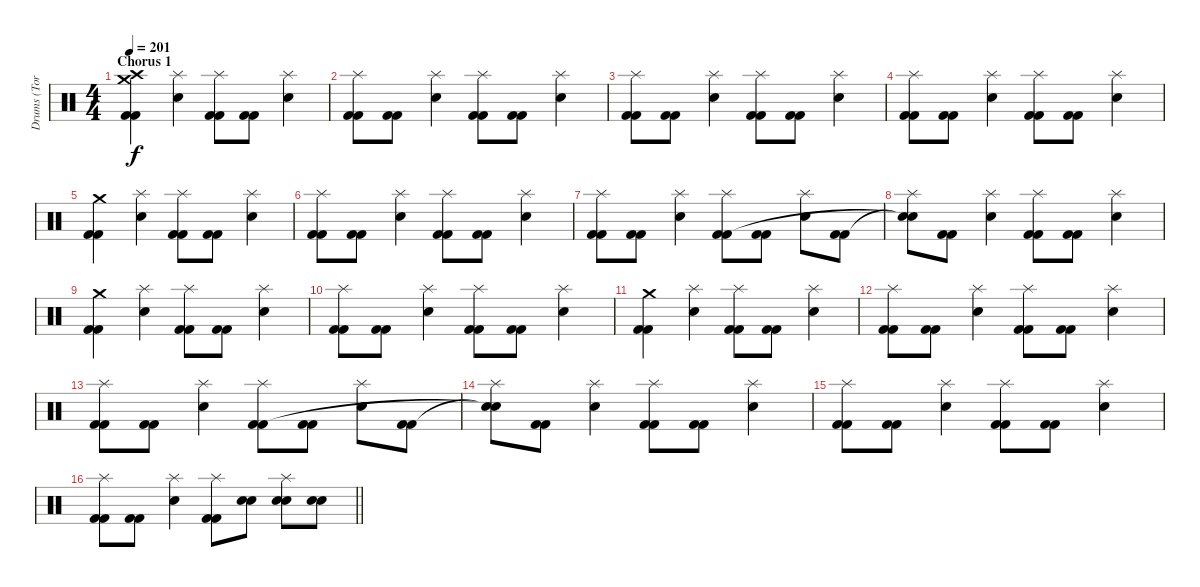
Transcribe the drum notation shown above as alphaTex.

\track ("Drums (Tora)" "Drums (Tor") {instrument percussion}
\staff {score}
\articulation defaults
\ts (4 4)
\section ("" "Chorus 1")
\tempo 201
\clef neutral
\ks c
("Crash high (hit)" "Crash medium (hit)" "Kick (hit) 2" "Kick (hit) 2").4{dy f} ("Splash (hit)" "Snare (hit) 2").4 ("Splash (hit)" "Kick (hit) 2" "Kick (hit) 2").8 ("Kick (hit) 2" "Kick (hit) 2").8 ("Splash (hit)" "Snare (hit) 2").4 |
("Splash (hit)" "Kick (hit) 2" "Kick (hit) 2").8 ("Kick (hit) 2" "Kick (hit) 2").8 ("Splash (hit)" "Snare (hit) 2").4 ("Splash (hit)" "Kick (hit) 2" "Kick (hit) 2").8 ("Kick (hit) 2" "Kick (hit) 2").8 ("Splash (hit)" "Snare (hit) 2").4 |
("Splash (hit)" "Kick (hit) 2" "Kick (hit) 2").8 ("Kick (hit) 2" "Kick (hit) 2").8 ("Splash (hit)" "Snare (hit) 2").4 ("Splash (hit)" "Kick (hit) 2" "Kick (hit) 2").8 ("Kick (hit) 2" "Kick (hit) 2").8 ("Splash (hit)" "Snare (hit) 2").4 |
("Splash (hit)" "Kick (hit) 2" "Kick (hit) 2").8 ("Kick (hit) 2" "Kick (hit) 2").8 ("Splash (hit)" "Snare (hit) 2").4 ("Splash (hit)" "Kick (hit) 2" "Kick (hit) 2").8 ("Kick (hit) 2" "Kick (hit) 2").8 ("Splash (hit)" "Snare (hit) 2").4 |
("Crash medium (hit)" "Kick (hit) 2" "Kick (hit) 2").4 ("Splash (hit)" "Snare (hit) 2").4 ("Splash (hit)" "Kick (hit) 2" "Kick (hit) 2").8 ("Kick (hit) 2" "Kick (hit) 2").8 ("Splash (hit)" "Snare (hit) 2").4 |
("Splash (hit)" "Kick (hit) 2" "Kick (hit) 2").8 ("Kick (hit) 2" "Kick (hit) 2").8 ("Splash (hit)" "Snare (hit) 2").4 ("Splash (hit)" "Kick (hit) 2" "Kick (hit) 2").8 ("Kick (hit) 2" "Kick (hit) 2").8 ("Splash (hit)" "Snare (hit) 2").4 |
("Splash (hit)" "Kick (hit) 2" "Kick (hit) 2").8 ("Kick (hit) 2" "Kick (hit) 2").8 ("Splash (hit)" "Snare (hit) 2").4 ("Splash (hit)" "Kick (hit) 2" "Kick (hit) 2").8 ("Kick (hit) 2" "Kick (hit) 2").8 ("Splash (hit)" "Snare (hit) 2").8 ("Kick (hit) 2" "Kick (hit) 2").8 |
("Splash (hit)" "Snare (hit)"{t} "Snare (hit)"{t}).8 ("Kick (hit) 2" "Kick (hit) 2").8 ("Splash (hit)" "Snare (hit) 2").4 ("Splash (hit)" "Kick (hit) 2" "Kick (hit) 2").8 ("Kick (hit) 2" "Kick (hit) 2").8 ("Splash (hit)" "Snare (hit) 2").4 |
("Crash medium (hit)" "Kick (hit) 2" "Kick (hit) 2").4 ("Splash (hit)" "Snare (hit) 2").4 ("Splash (hit)" "Kick (hit) 2" "Kick (hit) 2").8 ("Kick (hit) 2" "Kick (hit) 2").8 ("Splash (hit)" "Snare (hit) 2").4 |
("Splash (hit)" "Kick (hit) 2" "Kick (hit) 2").8 ("Kick (hit) 2" "Kick (hit) 2").8 ("Splash (hit)" "Snare (hit) 2").4 ("Splash (hit)" "Kick (hit) 2" "Kick (hit) 2").8 ("Kick (hit) 2" "Kick (hit) 2").8 ("Splash (hit)" "Snare (hit) 2").4 |
("Crash medium (hit)" "Kick (hit) 2" "Kick (hit) 2").4 ("Splash (hit)" "Snare (hit) 2").4 ("Splash (hit)" "Kick (hit) 2" "Kick (hit) 2").8 ("Kick (hit) 2" "Kick (hit) 2").8 ("Splash (hit)" "Snare (hit) 2").4 |
("Splash (hit)" "Kick (hit) 2" "Kick (hit) 2").8 ("Kick (hit) 2" "Kick (hit) 2").8 ("Splash (hit)" "Snare (hit) 2").4 ("Splash (hit)" "Kick (hit) 2" "Kick (hit) 2").8 ("Kick (hit) 2" "Kick (hit) 2").8 ("Splash (hit)" "Snare (hit) 2").4 |
("Splash (hit)" "Kick (hit) 2" "Kick (hit) 2").8 ("Kick (hit) 2" "Kick (hit) 2").8 ("Splash (hit)" "Snare (hit) 2").4 ("Splash (hit)" "Kick (hit) 2" "Kick (hit) 2").8 ("Kick (hit) 2" "Kick (hit) 2").8 ("Splash (hit)" "Snare (hit) 2").8 ("Kick (hit) 2" "Kick (hit) 2").8 |
("Splash (hit)" "Snare (hit)"{t} "Snare (hit)"{t}).8 ("Kick (hit) 2" "Kick (hit) 2").8 ("Splash (hit)" "Snare (hit) 2").4 ("Splash (hit)" "Kick (hit) 2" "Kick (hit) 2").8 ("Kick (hit) 2" "Kick (hit) 2").8 ("Splash (hit)" "Snare (hit) 2").4 |
("Splash (hit)" "Kick (hit) 2" "Kick (hit) 2").8 ("Kick (hit) 2" "Kick (hit) 2").8 ("Splash (hit)" "Snare (hit) 2").4 ("Splash (hit)" "Kick (hit) 2" "Kick (hit) 2").8 ("Kick (hit) 2" "Kick (hit) 2").8 ("Splash (hit)" "Snare (hit) 2").4 |
\barLineRight lightlight
("Splash (hit)" "Kick (hit) 2" "Kick (hit) 2").8 ("Kick (hit) 2" "Kick (hit) 2").8 ("Splash (hit)" "Snare (hit) 2").4 ("Splash (hit)" "Kick (hit) 2" "Kick (hit) 2").8 ("Snare (hit) 2" "Snare (hit) 2").8 ("Splash (hit)" "Snare (hit) 2" "Snare (hit) 2").8 ("Snare (hit) 2" "Snare (hit) 2").8
